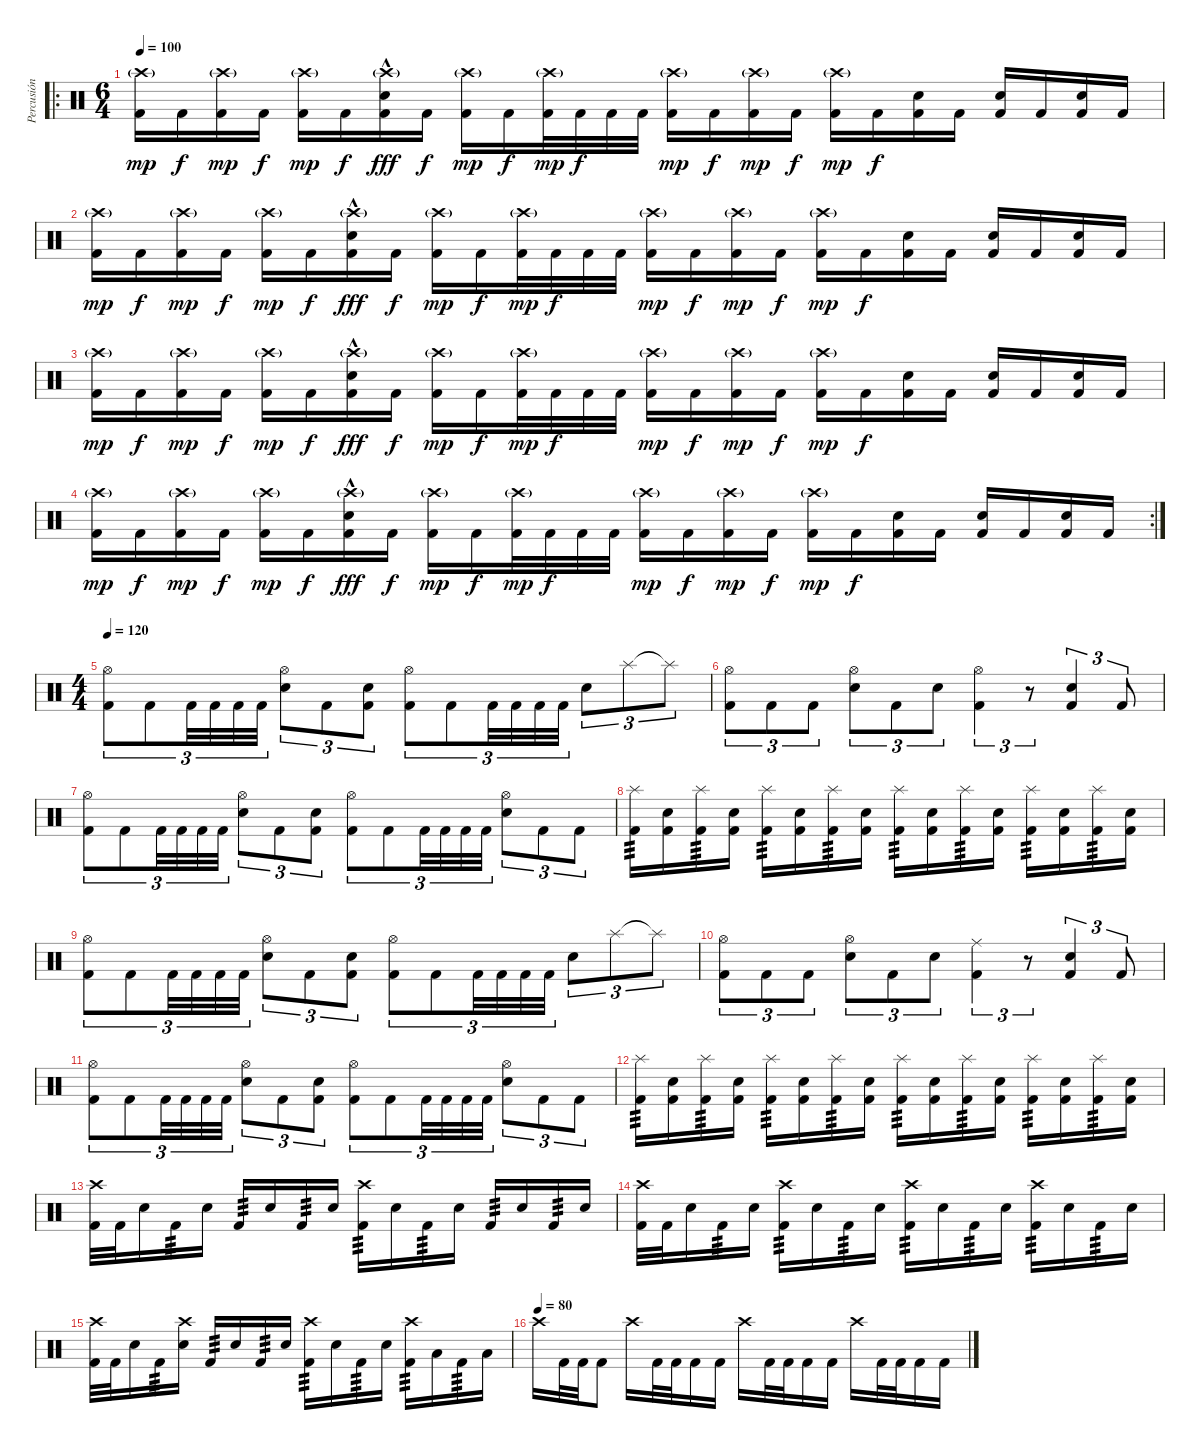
\track ("Percusión" "Percusión") {instrument percussion}
\staff {score}
\articulation defaults
\ro
\ts (6 4)
\tempo 100
\clef neutral
\ks c
("Crash high (hit)"{g} "Kick (hit) 2").16{dy mp} "Kick (hit) 2".16{dy f} ("Crash high (hit)"{g} "Kick (hit) 2").16{dy mp} "Kick (hit) 2".16{dy f} ("Crash high (hit)"{g} "Kick (hit) 2").16{dy mp} "Kick (hit) 2".16{dy f} ("Crash high (hit)"{g} "Electric Snare (hit)"{hac} "Kick (hit) 2").16{dy fff} "Kick (hit) 2".16{dy f} ("Crash high (hit)"{g} "Kick (hit) 2").16{dy mp} "Kick (hit) 2".16{dy f} ("Crash high (hit)"{g} "Kick (hit) 2").32{dy mp} "Kick (hit) 2".32{dy f} "Kick (hit) 2".32 "Kick (hit) 2".32 ("Crash high (hit)"{g} "Kick (hit) 2").16{dy mp} "Kick (hit) 2".16{dy f} ("Crash high (hit)"{g} "Kick (hit) 2").16{dy mp} "Kick (hit) 2".16{dy f} ("Crash high (hit)"{g} "Kick (hit) 2").16{dy mp} "Kick (hit) 2".16{dy f} ("Electric Snare (hit)" "Kick (hit) 2").16 "Kick (hit) 2".16 ("Electric Snare (hit)" "Kick (hit) 2").16 "Kick (hit) 2".16 ("Electric Snare (hit)" "Kick (hit) 2").16 "Kick (hit) 2".16 |
("Crash high (hit)"{g} "Kick (hit) 2").16{dy mp} "Kick (hit) 2".16{dy f} ("Crash high (hit)"{g} "Kick (hit) 2").16{dy mp} "Kick (hit) 2".16{dy f} ("Crash high (hit)"{g} "Kick (hit) 2").16{dy mp} "Kick (hit) 2".16{dy f} ("Crash high (hit)"{g} "Electric Snare (hit)"{hac} "Kick (hit) 2").16{dy fff} "Kick (hit) 2".16{dy f} ("Crash high (hit)"{g} "Kick (hit) 2").16{dy mp} "Kick (hit) 2".16{dy f} ("Crash high (hit)"{g} "Kick (hit) 2").32{dy mp} "Kick (hit) 2".32{dy f} "Kick (hit) 2".32 "Kick (hit) 2".32 ("Crash high (hit)"{g} "Kick (hit) 2").16{dy mp} "Kick (hit) 2".16{dy f} ("Crash high (hit)"{g} "Kick (hit) 2").16{dy mp} "Kick (hit) 2".16{dy f} ("Crash high (hit)"{g} "Kick (hit) 2").16{dy mp} "Kick (hit) 2".16{dy f} ("Electric Snare (hit)" "Kick (hit) 2").16 "Kick (hit) 2".16 ("Electric Snare (hit)" "Kick (hit) 2").16 "Kick (hit) 2".16 ("Electric Snare (hit)" "Kick (hit) 2").16 "Kick (hit) 2".16 |
("Crash high (hit)"{g} "Kick (hit) 2").16{dy mp} "Kick (hit) 2".16{dy f} ("Crash high (hit)"{g} "Kick (hit) 2").16{dy mp} "Kick (hit) 2".16{dy f} ("Crash high (hit)"{g} "Kick (hit) 2").16{dy mp} "Kick (hit) 2".16{dy f} ("Crash high (hit)"{g} "Electric Snare (hit)"{hac} "Kick (hit) 2").16{dy fff} "Kick (hit) 2".16{dy f} ("Crash high (hit)"{g} "Kick (hit) 2").16{dy mp} "Kick (hit) 2".16{dy f} ("Crash high (hit)"{g} "Kick (hit) 2").32{dy mp} "Kick (hit) 2".32{dy f} "Kick (hit) 2".32 "Kick (hit) 2".32 ("Crash high (hit)"{g} "Kick (hit) 2").16{dy mp} "Kick (hit) 2".16{dy f} ("Crash high (hit)"{g} "Kick (hit) 2").16{dy mp} "Kick (hit) 2".16{dy f} ("Crash high (hit)"{g} "Kick (hit) 2").16{dy mp} "Kick (hit) 2".16{dy f} ("Electric Snare (hit)" "Kick (hit) 2").16 "Kick (hit) 2".16 ("Electric Snare (hit)" "Kick (hit) 2").16 "Kick (hit) 2".16 ("Electric Snare (hit)" "Kick (hit) 2").16 "Kick (hit) 2".16 |
\rc 2
("Crash high (hit)"{g} "Kick (hit) 2").16{dy mp} "Kick (hit) 2".16{dy f} ("Crash high (hit)"{g} "Kick (hit) 2").16{dy mp} "Kick (hit) 2".16{dy f} ("Crash high (hit)"{g} "Kick (hit) 2").16{dy mp} "Kick (hit) 2".16{dy f} ("Crash high (hit)"{g} "Electric Snare (hit)"{hac} "Kick (hit) 2").16{dy fff} "Kick (hit) 2".16{dy f} ("Crash high (hit)"{g} "Kick (hit) 2").16{dy mp} "Kick (hit) 2".16{dy f} ("Crash high (hit)"{g} "Kick (hit) 2").32{dy mp} "Kick (hit) 2".32{dy f} "Kick (hit) 2".32 "Kick (hit) 2".32 ("Crash high (hit)"{g} "Kick (hit) 2").16{dy mp} "Kick (hit) 2".16{dy f} ("Crash high (hit)"{g} "Kick (hit) 2").16{dy mp} "Kick (hit) 2".16{dy f} ("Crash high (hit)"{g} "Kick (hit) 2").16{dy mp} "Kick (hit) 2".16{dy f} ("Electric Snare (hit)" "Kick (hit) 2").16 "Kick (hit) 2".16 ("Electric Snare (hit)" "Kick (hit) 2").16 "Kick (hit) 2".16 ("Electric Snare (hit)" "Kick (hit) 2").16 "Kick (hit) 2".16 |
\ts (4 4)
\tempo 120
("Hi-Hat (open)" "Kick (hit) 2").8{tu (3 2)} "Kick (hit) 2".8{tu (3 2)} "Kick (hit) 2".32{tu (3 2)} "Kick (hit) 2".32{tu (3 2)} "Kick (hit) 2".32{tu (3 2)} "Kick (hit) 2".32{tu (3 2)} ("Hi-Hat (open)" "Electric Snare (hit)").8{tu (3 2)} "Kick (hit) 2".8{tu (3 2)} ("Electric Snare (hit)" "Kick (hit) 2").8{tu (3 2)} ("Hi-Hat (open)" "Kick (hit) 2").8{tu (3 2)} "Kick (hit) 2".8{tu (3 2)} "Kick (hit) 2".32{tu (3 2)} "Kick (hit) 2".32{tu (3 2)} "Kick (hit) 2".32{tu (3 2)} "Kick (hit) 2".32{tu (3 2)} "Electric Snare (hit)".8{tu (3 2)} "Splash (hit)".8{tu (3 2)} "Splash (hit)"{t}.8{tu (3 2)} |
("Hi-Hat (open)" "Kick (hit) 2").8{tu (3 2)} "Kick (hit) 2".8{tu (3 2)} "Kick (hit) 2".8{tu (3 2)} ("Hi-Hat (open)" "Electric Snare (hit)").8{tu (3 2)} "Kick (hit) 2".8{tu (3 2)} "Electric Snare (hit)".8{tu (3 2)} ("Hi-Hat (open)" "Kick (hit) 2").4{tu (3 2)} r.8{tu (3 2)} ("Electric Snare (hit)" "Kick (hit) 2").4{tu (3 2)} "Kick (hit) 2".8{tu (3 2)} |
("Hi-Hat (open)" "Kick (hit) 2").8{tu (3 2)} "Kick (hit) 2".8{tu (3 2)} "Kick (hit) 2".32{tu (3 2)} "Kick (hit) 2".32{tu (3 2)} "Kick (hit) 2".32{tu (3 2)} "Kick (hit) 2".32{tu (3 2)} ("Hi-Hat (open)" "Electric Snare (hit)").8{tu (3 2)} "Kick (hit) 2".8{tu (3 2)} ("Electric Snare (hit)" "Kick (hit) 2").8{tu (3 2)} ("Hi-Hat (open)" "Kick (hit) 2").8{tu (3 2)} "Kick (hit) 2".8{tu (3 2)} "Kick (hit) 2".32{tu (3 2)} "Kick (hit) 2".32{tu (3 2)} "Kick (hit) 2".32{tu (3 2)} "Kick (hit) 2".32{tu (3 2)} ("Hi-Hat (open)" "Electric Snare (hit)").8{tu (3 2)} "Kick (hit) 2".8{tu (3 2)} "Kick (hit) 2".8{tu (3 2)} |
("Splash (hit)" "Kick (hit) 2").16{tp 3} ("Electric Snare (hit)" "Kick (hit) 2").16 ("Splash (hit)" "Kick (hit) 2").16{tp 3} ("Electric Snare (hit)" "Kick (hit) 2").16 ("Splash (hit)" "Kick (hit) 2").16{tp 3} ("Electric Snare (hit)" "Kick (hit) 2").16 ("Splash (hit)" "Kick (hit) 2").16{tp 3} ("Electric Snare (hit)" "Kick (hit) 2").16 ("Splash (hit)" "Kick (hit) 2").16{tp 3} ("Electric Snare (hit)" "Kick (hit) 2").16 ("Splash (hit)" "Kick (hit) 2").16{tp 3} ("Electric Snare (hit)" "Kick (hit) 2").16 ("Splash (hit)" "Kick (hit) 2").16{tp 3} ("Electric Snare (hit)" "Kick (hit) 2").16 ("Splash (hit)" "Kick (hit) 2").16{tp 3} ("Electric Snare (hit)" "Kick (hit) 2").16 |
("Hi-Hat (open)" "Kick (hit) 2").8{tu (3 2)} "Kick (hit) 2".8{tu (3 2)} "Kick (hit) 2".32{tu (3 2)} "Kick (hit) 2".32{tu (3 2)} "Kick (hit) 2".32{tu (3 2)} "Kick (hit) 2".32{tu (3 2)} ("Hi-Hat (open)" "Electric Snare (hit)").8{tu (3 2)} "Kick (hit) 2".8{tu (3 2)} ("Electric Snare (hit)" "Kick (hit) 2").8{tu (3 2)} ("Hi-Hat (open)" "Kick (hit) 2").8{tu (3 2)} "Kick (hit) 2".8{tu (3 2)} "Kick (hit) 2".32{tu (3 2)} "Kick (hit) 2".32{tu (3 2)} "Kick (hit) 2".32{tu (3 2)} "Kick (hit) 2".32{tu (3 2)} "Electric Snare (hit)".8{tu (3 2)} "Splash (hit)".8{tu (3 2)} "Splash (hit)"{t}.8{tu (3 2)} |
("Hi-Hat (open)" "Kick (hit) 2").8{tu (3 2)} "Kick (hit) 2".8{tu (3 2)} "Kick (hit) 2".8{tu (3 2)} ("Hi-Hat (open)" "Electric Snare (hit)").8{tu (3 2)} "Kick (hit) 2".8{tu (3 2)} "Electric Snare (hit)".8{tu (3 2)} ("Ride (middle)" "Kick (hit) 2").4{tu (3 2)} r.8{tu (3 2)} ("Electric Snare (hit)" "Kick (hit) 2").4{tu (3 2)} "Kick (hit) 2".8{tu (3 2)} |
("Hi-Hat (open)" "Kick (hit) 2").8{tu (3 2)} "Kick (hit) 2".8{tu (3 2)} "Kick (hit) 2".32{tu (3 2)} "Kick (hit) 2".32{tu (3 2)} "Kick (hit) 2".32{tu (3 2)} "Kick (hit) 2".32{tu (3 2)} ("Hi-Hat (open)" "Electric Snare (hit)").8{tu (3 2)} "Kick (hit) 2".8{tu (3 2)} ("Electric Snare (hit)" "Kick (hit) 2").8{tu (3 2)} ("Hi-Hat (open)" "Kick (hit) 2").8{tu (3 2)} "Kick (hit) 2".8{tu (3 2)} "Kick (hit) 2".32{tu (3 2)} "Kick (hit) 2".32{tu (3 2)} "Kick (hit) 2".32{tu (3 2)} "Kick (hit) 2".32{tu (3 2)} ("Hi-Hat (open)" "Electric Snare (hit)").8{tu (3 2)} "Kick (hit) 2".8{tu (3 2)} "Kick (hit) 2".8{tu (3 2)} |
("Splash (hit)" "Kick (hit) 2").16{tp 3} ("Electric Snare (hit)" "Kick (hit) 2").16 ("Splash (hit)" "Kick (hit) 2").16{tp 3} ("Electric Snare (hit)" "Kick (hit) 2").16 ("Splash (hit)" "Kick (hit) 2").16{tp 3} ("Electric Snare (hit)" "Kick (hit) 2").16 ("Splash (hit)" "Kick (hit) 2").16{tp 3} ("Electric Snare (hit)" "Kick (hit) 2").16 ("Splash (hit)" "Kick (hit) 2").16{tp 3} ("Electric Snare (hit)" "Kick (hit) 2").16 ("Splash (hit)" "Kick (hit) 2").16{tp 3} ("Electric Snare (hit)" "Kick (hit) 2").16 ("Splash (hit)" "Kick (hit) 2").16{tp 3} ("Electric Snare (hit)" "Kick (hit) 2").16 ("Splash (hit)" "Kick (hit) 2").16{tp 3} ("Electric Snare (hit)" "Kick (hit) 2").16 |
("Crash high (hit)" "Kick (hit) 2").32 "Kick (hit) 2".32 "Electric Snare (hit)".16 "Kick (hit) 2".16{tp 3} "Electric Snare (hit)".16 "Kick (hit) 2".16{tp 3} "Electric Snare (hit)".16 "Kick (hit) 2".16{tp 3} "Electric Snare (hit)".16 ("Crash high (hit)" "Kick (hit) 2").16{tp 3} "Electric Snare (hit)".16 "Kick (hit) 2".16{tp 3} "Electric Snare (hit)".16 "Kick (hit) 2".16{tp 3} "Electric Snare (hit)".16 "Kick (hit) 2".16{tp 3} "Electric Snare (hit)".16 |
("Crash high (hit)" "Kick (hit) 2").32 "Kick (hit) 2".32 "Electric Snare (hit)".16 "Kick (hit) 2".16{tp 3} "Electric Snare (hit)".16 ("Crash high (hit)" "Kick (hit) 2").16{tp 3} "Electric Snare (hit)".16 "Kick (hit) 2".16{tp 3} "Electric Snare (hit)".16 ("Crash high (hit)" "Kick (hit) 2").16{tp 3} "Electric Snare (hit)".16 "Kick (hit) 2".16{tp 3} "Electric Snare (hit)".16 ("Crash high (hit)" "Kick (hit) 2").16{tp 3} "Electric Snare (hit)".16 "Kick (hit) 2".16{tp 3} "Electric Snare (hit)".16 |
("Crash high (hit)" "Kick (hit) 2").32 "Kick (hit) 2".32 "Electric Snare (hit)".16 "Kick (hit) 2".16{tp 3} ("Crash high (hit)" "Electric Snare (hit)").16 "Kick (hit) 2".16{tp 3} "Electric Snare (hit)".16 "Kick (hit) 2".16{tp 3} "Electric Snare (hit)".16 ("Crash high (hit)" "Kick (hit) 2").16{tp 3} "Electric Snare (hit)".16 "Kick (hit) 2".16{tp 3} "Electric Snare (hit)".16 ("Crash high (hit)" "Kick (hit) 2").16{tp 3} "Low Tom (hit)".16 "Kick (hit) 2".16{tp 3} "Low Tom (hit)".16 |
\tempo (80)
"Crash high (hit)".16 "Kick (hit) 2".32 "Kick (hit) 2".32 "Kick (hit) 2".8 "Crash high (hit)".16 "Kick (hit) 2".32 "Kick (hit) 2".32 "Kick (hit) 2".16 "Kick (hit) 2".16 "Crash high (hit)".16 "Kick (hit) 2".32 "Kick (hit) 2".32 "Kick (hit) 2".16 "Kick (hit) 2".16 "Crash high (hit)".16 "Kick (hit) 2".32 "Kick (hit) 2".32 "Kick (hit) 2".16 "Kick (hit) 2".16
